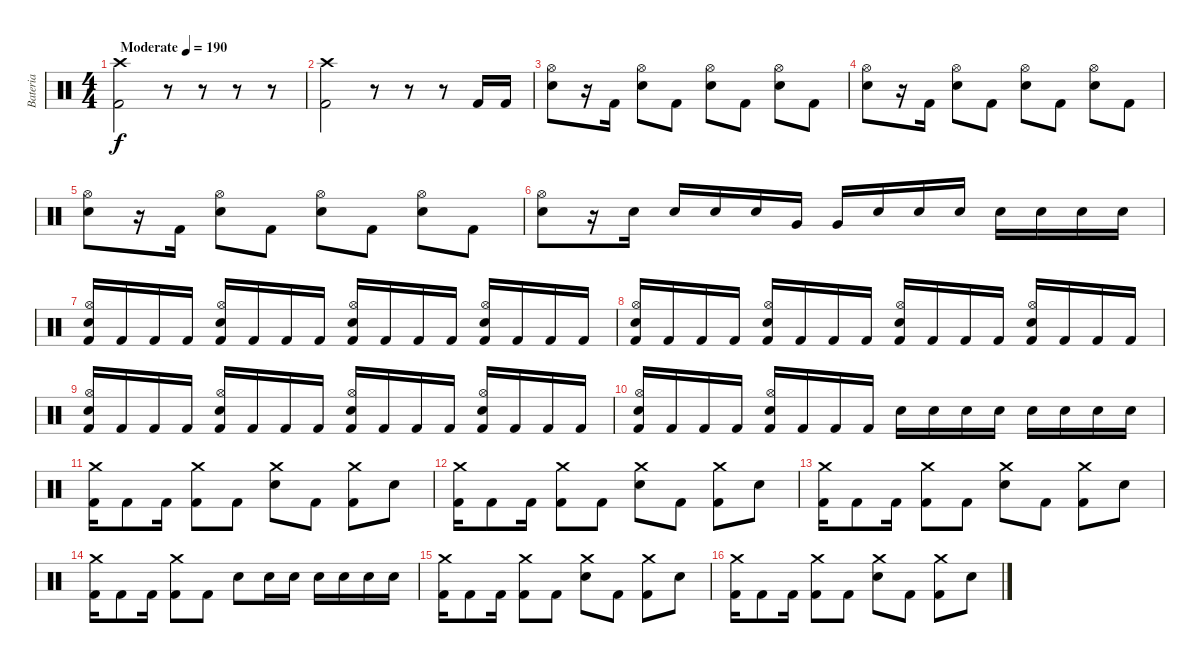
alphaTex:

\track ("Bateria" "Bateria") {instrument percussion}
\staff {score}
\articulation defaults
\ts (4 4)
\tempo (190 "Moderate")
\clef neutral
\ks c
("Crash high (hit)" "Kick (hit) 2").2{dy f} r.8 r.8 r.8 r.8 |
("Crash high (hit)" "Kick (hit) 2").2 r.8 r.8 r.8 "Kick (hit) 2".16 "Kick (hit) 2".16 |
("Hi-Hat (open)" "Electric Snare (hit)").8 r.16 "Kick (hit) 2".16 ("Hi-Hat (open)" "Electric Snare (hit)").8 "Kick (hit) 2".8 ("Hi-Hat (open)" "Electric Snare (hit)").8 "Kick (hit) 2".8 ("Hi-Hat (open)" "Electric Snare (hit)").8 "Kick (hit) 2".8 |
("Hi-Hat (open)" "Electric Snare (hit)").8 r.16 "Kick (hit) 2".16 ("Hi-Hat (open)" "Electric Snare (hit)").8 "Kick (hit) 2".8 ("Hi-Hat (open)" "Electric Snare (hit)").8 "Kick (hit) 2".8 ("Hi-Hat (open)" "Electric Snare (hit)").8 "Kick (hit) 2".8 |
("Hi-Hat (open)" "Electric Snare (hit)").8 r.16 "Kick (hit) 2".16 ("Hi-Hat (open)" "Electric Snare (hit)").8 "Kick (hit) 2".8 ("Hi-Hat (open)" "Electric Snare (hit)").8 "Kick (hit) 2".8 ("Hi-Hat (open)" "Electric Snare (hit)").8 "Kick (hit) 2".8 |
("Hi-Hat (open)" "Electric Snare (hit)").8 r.16 "Electric Snare (hit)".16 "Electric Snare (hit)".16 "Electric Snare (hit)".16 "Electric Snare (hit)".16 "Very Low Tom (hit)".16 "Very Low Tom (hit)".16 "Electric Snare (hit)".16 "Electric Snare (hit)".16 "Electric Snare (hit)".16 "Electric Snare (hit)".16 "Electric Snare (hit)".16 "Electric Snare (hit)".16 "Electric Snare (hit)".16 |
("Hi-Hat (open)" "Electric Snare (hit)" "Kick (hit) 2").16 "Kick (hit) 2".16 "Kick (hit) 2".16 "Kick (hit) 2".16 ("Hi-Hat (open)" "Electric Snare (hit)" "Kick (hit) 2").16 "Kick (hit) 2".16 "Kick (hit) 2".16 "Kick (hit) 2".16 ("Hi-Hat (open)" "Electric Snare (hit)" "Kick (hit) 2").16 "Kick (hit) 2".16 "Kick (hit) 2".16 "Kick (hit) 2".16 ("Hi-Hat (open)" "Electric Snare (hit)" "Kick (hit) 2").16 "Kick (hit) 2".16 "Kick (hit) 2".16 "Kick (hit) 2".16 |
("Hi-Hat (open)" "Electric Snare (hit)" "Kick (hit) 2").16 "Kick (hit) 2".16 "Kick (hit) 2".16 "Kick (hit) 2".16 ("Hi-Hat (open)" "Electric Snare (hit)" "Kick (hit) 2").16 "Kick (hit) 2".16 "Kick (hit) 2".16 "Kick (hit) 2".16 ("Hi-Hat (open)" "Electric Snare (hit)" "Kick (hit) 2").16 "Kick (hit) 2".16 "Kick (hit) 2".16 "Kick (hit) 2".16 ("Hi-Hat (open)" "Electric Snare (hit)" "Kick (hit) 2").16 "Kick (hit) 2".16 "Kick (hit) 2".16 "Kick (hit) 2".16 |
("Hi-Hat (open)" "Electric Snare (hit)" "Kick (hit) 2").16 "Kick (hit) 2".16 "Kick (hit) 2".16 "Kick (hit) 2".16 ("Hi-Hat (open)" "Electric Snare (hit)" "Kick (hit) 2").16 "Kick (hit) 2".16 "Kick (hit) 2".16 "Kick (hit) 2".16 ("Hi-Hat (open)" "Electric Snare (hit)" "Kick (hit) 2").16 "Kick (hit) 2".16 "Kick (hit) 2".16 "Kick (hit) 2".16 ("Hi-Hat (open)" "Electric Snare (hit)" "Kick (hit) 2").16 "Kick (hit) 2".16 "Kick (hit) 2".16 "Kick (hit) 2".16 |
("Hi-Hat (open)" "Electric Snare (hit)" "Kick (hit) 2").16 "Kick (hit) 2".16 "Kick (hit) 2".16 "Kick (hit) 2".16 ("Hi-Hat (open)" "Electric Snare (hit)" "Kick (hit) 2").16 "Kick (hit) 2".16 "Kick (hit) 2".16 "Kick (hit) 2".16 "Electric Snare (hit)".16 "Electric Snare (hit)".16 "Electric Snare (hit)".16 "Electric Snare (hit)".16 "Electric Snare (hit)".16 "Electric Snare (hit)".16 "Electric Snare (hit)".16 "Electric Snare (hit)".16 |
("Crash medium (hit)" "Kick (hit) 2").16 "Kick (hit) 2".8 "Kick (hit) 2".16 ("Crash medium (hit)" "Kick (hit) 2").8 "Kick (hit) 2".8 ("Crash medium (hit)" "Electric Snare (hit)").8 "Kick (hit) 2".8 ("Crash medium (hit)" "Kick (hit) 2").8 "Electric Snare (hit)".8 |
("Crash medium (hit)" "Kick (hit) 2").16 "Kick (hit) 2".8 "Kick (hit) 2".16 ("Crash medium (hit)" "Kick (hit) 2").8 "Kick (hit) 2".8 ("Crash medium (hit)" "Electric Snare (hit)").8 "Kick (hit) 2".8 ("Crash medium (hit)" "Kick (hit) 2").8 "Electric Snare (hit)".8 |
("Crash medium (hit)" "Kick (hit) 2").16 "Kick (hit) 2".8 "Kick (hit) 2".16 ("Crash medium (hit)" "Kick (hit) 2").8 "Kick (hit) 2".8 ("Crash medium (hit)" "Electric Snare (hit)").8 "Kick (hit) 2".8 ("Crash medium (hit)" "Kick (hit) 2").8 "Electric Snare (hit)".8 |
("Crash medium (hit)" "Kick (hit) 2").16 "Kick (hit) 2".8 "Kick (hit) 2".16 ("Crash medium (hit)" "Kick (hit) 2").8 "Kick (hit) 2".8 "Electric Snare (hit)".8 "Electric Snare (hit)".16 "Electric Snare (hit)".16 "Electric Snare (hit)".16 "Electric Snare (hit)".16 "Electric Snare (hit)".16 "Electric Snare (hit)".16 |
("Crash medium (hit)" "Kick (hit) 2").16 "Kick (hit) 2".8 "Kick (hit) 2".16 ("Crash medium (hit)" "Kick (hit) 2").8 "Kick (hit) 2".8 ("Crash medium (hit)" "Electric Snare (hit)").8 "Kick (hit) 2".8 ("Crash medium (hit)" "Kick (hit) 2").8 "Electric Snare (hit)".8 |
("Crash medium (hit)" "Kick (hit) 2").16 "Kick (hit) 2".8 "Kick (hit) 2".16 ("Crash medium (hit)" "Kick (hit) 2").8 "Kick (hit) 2".8 ("Crash medium (hit)" "Electric Snare (hit)").8 "Kick (hit) 2".8 ("Crash medium (hit)" "Kick (hit) 2").8 "Electric Snare (hit)".8
